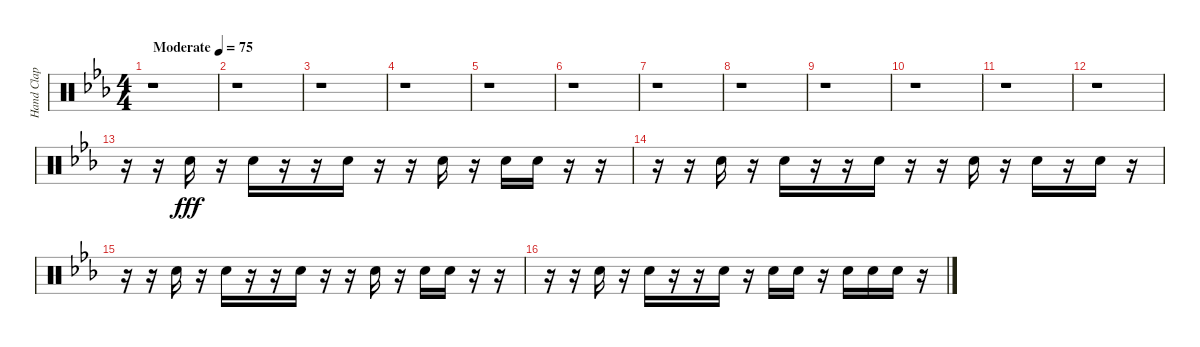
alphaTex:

\track ("Hand Clap" "Hand Clap") {instrument percussion}
\staff {score}
\articulation defaults
\ts (4 4)
\tempo (75 "Moderate")
\clef neutral
\ks eb
r.1{dy fff} |
r.1 |
r.1 |
r.1 |
r.1 |
r.1 |
r.1 |
r.1 |
r.1 |
r.1 |
r.1 |
r.1 |
r.16 r.16 "Hand Clap (hit)".16 r.16 "Hand Clap (hit)".16 r.16 r.16 "Hand Clap (hit)".16 r.16 r.16 "Hand Clap (hit)".16 r.16 "Hand Clap (hit)".16 "Hand Clap (hit)".16 r.16 r.16 |
r.16 r.16 "Hand Clap (hit)".16 r.16 "Hand Clap (hit)".16 r.16 r.16 "Hand Clap (hit)".16 r.16 r.16 "Hand Clap (hit)".16 r.16 "Hand Clap (hit)".16 r.16 "Hand Clap (hit)".16 r.16 |
r.16 r.16 "Hand Clap (hit)".16 r.16 "Hand Clap (hit)".16 r.16 r.16 "Hand Clap (hit)".16 r.16 r.16 "Hand Clap (hit)".16 r.16 "Hand Clap (hit)".16 "Hand Clap (hit)".16 r.16 r.16 |
r.16 r.16 "Hand Clap (hit)".16 r.16 "Hand Clap (hit)".16 r.16 r.16 "Hand Clap (hit)".16 r.16 "Hand Clap (hit)".16 "Hand Clap (hit)".16 r.16 "Hand Clap (hit)".16 "Hand Clap (hit)".16 "Hand Clap (hit)".16 r.16
